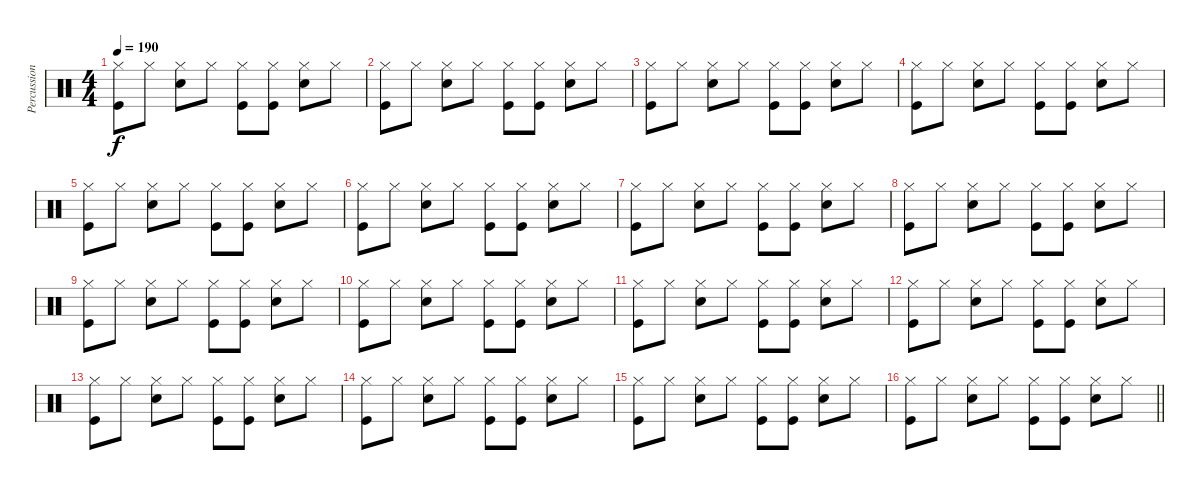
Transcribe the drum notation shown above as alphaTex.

\track ("Percussion" "Percussion") {instrument percussion}
\staff {score}
\articulation defaults
\ts (4 4)
\tempo 190
\clef neutral
\ks c
("Hi-Hat (closed)" "Kick (hit)").8{dy f} "Hi-Hat (closed)".8 ("Snare (hit) 2" "Hi-Hat (closed)").8 "Hi-Hat (closed)".8 ("Hi-Hat (closed)" "Kick (hit)").8 ("Hi-Hat (closed)" "Kick (hit)").8 ("Snare (hit) 2" "Hi-Hat (closed)").8 "Hi-Hat (closed)".8 |
("Hi-Hat (closed)" "Kick (hit)").8 "Hi-Hat (closed)".8 ("Snare (hit) 2" "Hi-Hat (closed)").8 "Hi-Hat (closed)".8 ("Hi-Hat (closed)" "Kick (hit)").8 ("Hi-Hat (closed)" "Kick (hit)").8 ("Snare (hit) 2" "Hi-Hat (closed)").8 "Hi-Hat (closed)".8 |
("Hi-Hat (closed)" "Kick (hit)").8 "Hi-Hat (closed)".8 ("Snare (hit) 2" "Hi-Hat (closed)").8 "Hi-Hat (closed)".8 ("Hi-Hat (closed)" "Kick (hit)").8 ("Hi-Hat (closed)" "Kick (hit)").8 ("Snare (hit) 2" "Hi-Hat (closed)").8 "Hi-Hat (closed)".8 |
("Hi-Hat (closed)" "Kick (hit)").8 "Hi-Hat (closed)".8 ("Snare (hit) 2" "Hi-Hat (closed)").8 "Hi-Hat (closed)".8 ("Hi-Hat (closed)" "Kick (hit)").8 ("Hi-Hat (closed)" "Kick (hit)").8 ("Snare (hit) 2" "Hi-Hat (closed)").8 "Hi-Hat (closed)".8 |
("Hi-Hat (closed)" "Kick (hit)").8 "Hi-Hat (closed)".8 ("Snare (hit) 2" "Hi-Hat (closed)").8 "Hi-Hat (closed)".8 ("Hi-Hat (closed)" "Kick (hit)").8 ("Hi-Hat (closed)" "Kick (hit)").8 ("Snare (hit) 2" "Hi-Hat (closed)").8 "Hi-Hat (closed)".8 |
("Hi-Hat (closed)" "Kick (hit)").8 "Hi-Hat (closed)".8 ("Snare (hit) 2" "Hi-Hat (closed)").8 "Hi-Hat (closed)".8 ("Hi-Hat (closed)" "Kick (hit)").8 ("Hi-Hat (closed)" "Kick (hit)").8 ("Snare (hit) 2" "Hi-Hat (closed)").8 "Hi-Hat (closed)".8 |
("Hi-Hat (closed)" "Kick (hit)").8 "Hi-Hat (closed)".8 ("Snare (hit) 2" "Hi-Hat (closed)").8 "Hi-Hat (closed)".8 ("Hi-Hat (closed)" "Kick (hit)").8 ("Hi-Hat (closed)" "Kick (hit)").8 ("Snare (hit) 2" "Hi-Hat (closed)").8 "Hi-Hat (closed)".8 |
("Hi-Hat (closed)" "Kick (hit)").8 "Hi-Hat (closed)".8 ("Snare (hit) 2" "Hi-Hat (closed)").8 "Hi-Hat (closed)".8 ("Hi-Hat (closed)" "Kick (hit)").8 ("Hi-Hat (closed)" "Kick (hit)").8 ("Snare (hit) 2" "Hi-Hat (closed)").8 "Hi-Hat (closed)".8 |
("Hi-Hat (closed)" "Kick (hit)").8 "Hi-Hat (closed)".8 ("Snare (hit) 2" "Hi-Hat (closed)").8 "Hi-Hat (closed)".8 ("Hi-Hat (closed)" "Kick (hit)").8 ("Hi-Hat (closed)" "Kick (hit)").8 ("Snare (hit) 2" "Hi-Hat (closed)").8 "Hi-Hat (closed)".8 |
("Hi-Hat (closed)" "Kick (hit)").8 "Hi-Hat (closed)".8 ("Snare (hit) 2" "Hi-Hat (closed)").8 "Hi-Hat (closed)".8 ("Hi-Hat (closed)" "Kick (hit)").8 ("Hi-Hat (closed)" "Kick (hit)").8 ("Snare (hit) 2" "Hi-Hat (closed)").8 "Hi-Hat (closed)".8 |
("Hi-Hat (closed)" "Kick (hit)").8 "Hi-Hat (closed)".8 ("Snare (hit) 2" "Hi-Hat (closed)").8 "Hi-Hat (closed)".8 ("Hi-Hat (closed)" "Kick (hit)").8 ("Hi-Hat (closed)" "Kick (hit)").8 ("Snare (hit) 2" "Hi-Hat (closed)").8 "Hi-Hat (closed)".8 |
("Hi-Hat (closed)" "Kick (hit)").8 "Hi-Hat (closed)".8 ("Snare (hit) 2" "Hi-Hat (closed)").8 "Hi-Hat (closed)".8 ("Hi-Hat (closed)" "Kick (hit)").8 ("Hi-Hat (closed)" "Kick (hit)").8 ("Snare (hit) 2" "Hi-Hat (closed)").8 "Hi-Hat (closed)".8 |
("Hi-Hat (closed)" "Kick (hit)").8 "Hi-Hat (closed)".8 ("Snare (hit) 2" "Hi-Hat (closed)").8 "Hi-Hat (closed)".8 ("Hi-Hat (closed)" "Kick (hit)").8 ("Hi-Hat (closed)" "Kick (hit)").8 ("Snare (hit) 2" "Hi-Hat (closed)").8 "Hi-Hat (closed)".8 |
("Hi-Hat (closed)" "Kick (hit)").8 "Hi-Hat (closed)".8 ("Snare (hit) 2" "Hi-Hat (closed)").8 "Hi-Hat (closed)".8 ("Hi-Hat (closed)" "Kick (hit)").8 ("Hi-Hat (closed)" "Kick (hit)").8 ("Snare (hit) 2" "Hi-Hat (closed)").8 "Hi-Hat (closed)".8 |
("Hi-Hat (closed)" "Kick (hit)").8 "Hi-Hat (closed)".8 ("Snare (hit) 2" "Hi-Hat (closed)").8 "Hi-Hat (closed)".8 ("Hi-Hat (closed)" "Kick (hit)").8 ("Hi-Hat (closed)" "Kick (hit)").8 ("Snare (hit) 2" "Hi-Hat (closed)").8 "Hi-Hat (closed)".8 |
\barLineRight lightlight
("Hi-Hat (closed)" "Kick (hit)").8 "Hi-Hat (closed)".8 ("Snare (hit) 2" "Hi-Hat (closed)").8 "Hi-Hat (closed)".8 ("Hi-Hat (closed)" "Kick (hit)").8 ("Hi-Hat (closed)" "Kick (hit)").8 ("Snare (hit) 2" "Hi-Hat (closed)").8 "Hi-Hat (closed)".8
